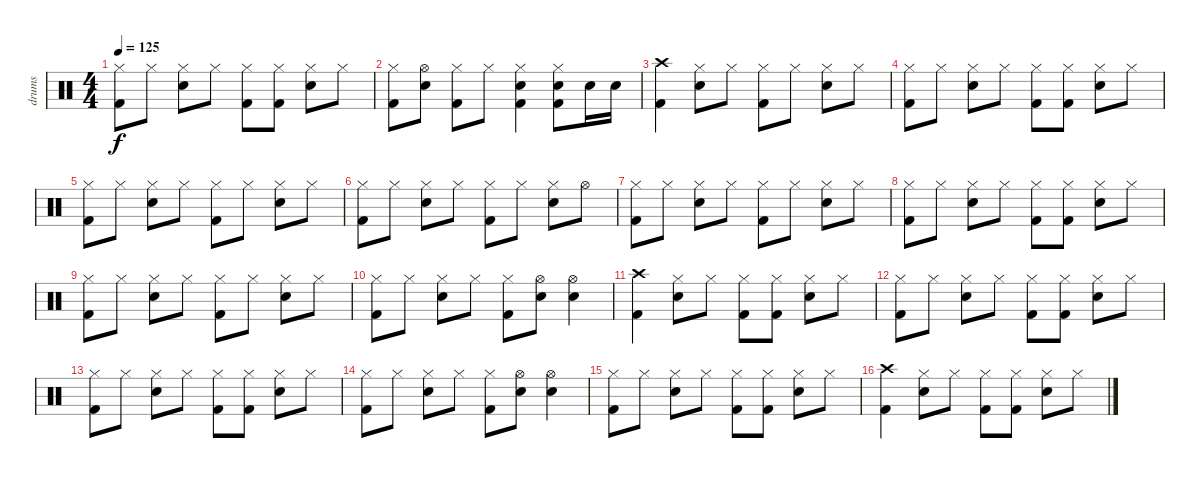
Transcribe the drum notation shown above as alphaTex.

\track ("drums" "drums") {instrument percussion}
\staff {score}
\articulation defaults
\ts (4 4)
\tempo 125
\clef neutral
\ks c
("Hi-Hat (closed)" "Kick (hit) 2").8{dy f} "Hi-Hat (closed)".8 ("Hi-Hat (closed)" "Electric Snare (hit)").8 "Hi-Hat (closed)".8 ("Hi-Hat (closed)" "Kick (hit) 2").8 ("Hi-Hat (closed)" "Kick (hit) 2").8 ("Hi-Hat (closed)" "Electric Snare (hit)").8 "Hi-Hat (closed)".8 |
("Hi-Hat (closed)" "Kick (hit) 2").8 ("Hi-Hat (open)" "Electric Snare (hit)").8 ("Hi-Hat (closed)" "Kick (hit) 2").8 "Hi-Hat (closed)".8 ("Hi-Hat (closed)" "Electric Snare (hit)" "Kick (hit) 2").4 ("Hi-Hat (closed)" "Electric Snare (hit)" "Kick (hit) 2").8 "Electric Snare (hit)".16 "Electric Snare (hit)".16 |
("Crash high (hit)" "Kick (hit) 2").4 ("Hi-Hat (closed)" "Electric Snare (hit)").8 "Hi-Hat (closed)".8 ("Hi-Hat (closed)" "Kick (hit) 2").8 "Hi-Hat (closed)".8 ("Hi-Hat (closed)" "Electric Snare (hit)").8 "Hi-Hat (closed)".8 |
("Hi-Hat (closed)" "Kick (hit) 2").8 "Hi-Hat (closed)".8 ("Hi-Hat (closed)" "Electric Snare (hit)").8 "Hi-Hat (closed)".8 ("Hi-Hat (closed)" "Kick (hit) 2").8 ("Hi-Hat (closed)" "Kick (hit) 2").8 ("Hi-Hat (closed)" "Electric Snare (hit)").8 "Hi-Hat (closed)".8 |
("Hi-Hat (closed)" "Kick (hit) 2").8 "Hi-Hat (closed)".8 ("Hi-Hat (closed)" "Electric Snare (hit)").8 "Hi-Hat (closed)".8 ("Hi-Hat (closed)" "Kick (hit) 2").8 "Hi-Hat (closed)".8 ("Hi-Hat (closed)" "Electric Snare (hit)").8 "Hi-Hat (closed)".8 |
("Hi-Hat (closed)" "Kick (hit) 2").8 "Hi-Hat (closed)".8 ("Hi-Hat (closed)" "Electric Snare (hit)").8 "Hi-Hat (closed)".8 ("Hi-Hat (closed)" "Kick (hit) 2").8 "Hi-Hat (closed)".8 ("Hi-Hat (closed)" "Electric Snare (hit)").8 "Hi-Hat (open)".8 |
("Hi-Hat (closed)" "Kick (hit) 2").8 "Hi-Hat (closed)".8 ("Hi-Hat (closed)" "Electric Snare (hit)").8 "Hi-Hat (closed)".8 ("Hi-Hat (closed)" "Kick (hit) 2").8 "Hi-Hat (closed)".8 ("Hi-Hat (closed)" "Electric Snare (hit)").8 "Hi-Hat (closed)".8 |
("Hi-Hat (closed)" "Kick (hit) 2").8 "Hi-Hat (closed)".8 ("Hi-Hat (closed)" "Electric Snare (hit)").8 "Hi-Hat (closed)".8 ("Hi-Hat (closed)" "Kick (hit) 2").8 ("Hi-Hat (closed)" "Kick (hit) 2").8 ("Hi-Hat (closed)" "Electric Snare (hit)").8 "Hi-Hat (closed)".8 |
("Hi-Hat (closed)" "Kick (hit) 2").8 "Hi-Hat (closed)".8 ("Hi-Hat (closed)" "Electric Snare (hit)").8 "Hi-Hat (closed)".8 ("Hi-Hat (closed)" "Kick (hit) 2").8 "Hi-Hat (closed)".8 ("Hi-Hat (closed)" "Electric Snare (hit)").8 "Hi-Hat (closed)".8 |
("Hi-Hat (closed)" "Kick (hit) 2").8 "Hi-Hat (closed)".8 ("Hi-Hat (closed)" "Electric Snare (hit)").8 "Hi-Hat (closed)".8 ("Hi-Hat (closed)" "Kick (hit) 2").8 ("Hi-Hat (open)" "Electric Snare (hit)").8 ("Hi-Hat (open)" "Electric Snare (hit)").4 |
("Crash high (hit)" "Kick (hit) 2").4 ("Hi-Hat (closed)" "Electric Snare (hit)").8 "Hi-Hat (closed)".8 ("Hi-Hat (closed)" "Kick (hit) 2").8 ("Hi-Hat (closed)" "Kick (hit) 2").8 ("Hi-Hat (closed)" "Electric Snare (hit)").8 "Hi-Hat (closed)".8 |
("Hi-Hat (closed)" "Kick (hit) 2").8 "Hi-Hat (closed)".8 ("Hi-Hat (closed)" "Electric Snare (hit)").8 "Hi-Hat (closed)".8 ("Hi-Hat (closed)" "Kick (hit) 2").8 ("Hi-Hat (closed)" "Kick (hit) 2").8 ("Hi-Hat (closed)" "Electric Snare (hit)").8 "Hi-Hat (closed)".8 |
("Hi-Hat (closed)" "Kick (hit) 2").8 "Hi-Hat (closed)".8 ("Hi-Hat (closed)" "Electric Snare (hit)").8 "Hi-Hat (closed)".8 ("Hi-Hat (closed)" "Kick (hit) 2").8 ("Hi-Hat (closed)" "Kick (hit) 2").8 ("Hi-Hat (closed)" "Electric Snare (hit)").8 "Hi-Hat (closed)".8 |
("Hi-Hat (closed)" "Kick (hit) 2").8 "Hi-Hat (closed)".8 ("Hi-Hat (closed)" "Electric Snare (hit)").8 "Hi-Hat (closed)".8 ("Hi-Hat (closed)" "Kick (hit) 2").8 ("Hi-Hat (open)" "Electric Snare (hit)").8 ("Hi-Hat (open)" "Electric Snare (hit)").4 |
("Hi-Hat (closed)" "Kick (hit) 2").8 "Hi-Hat (closed)".8 ("Hi-Hat (closed)" "Electric Snare (hit)").8 "Hi-Hat (closed)".8 ("Hi-Hat (closed)" "Kick (hit) 2").8 ("Hi-Hat (closed)" "Kick (hit) 2").8 ("Hi-Hat (closed)" "Electric Snare (hit)").8 "Hi-Hat (closed)".8 |
("Crash high (hit)" "Kick (hit) 2").4 ("Hi-Hat (closed)" "Electric Snare (hit)").8 "Hi-Hat (closed)".8 ("Hi-Hat (closed)" "Kick (hit) 2").8 ("Hi-Hat (closed)" "Kick (hit) 2").8 ("Hi-Hat (closed)" "Electric Snare (hit)").8 "Hi-Hat (closed)".8
